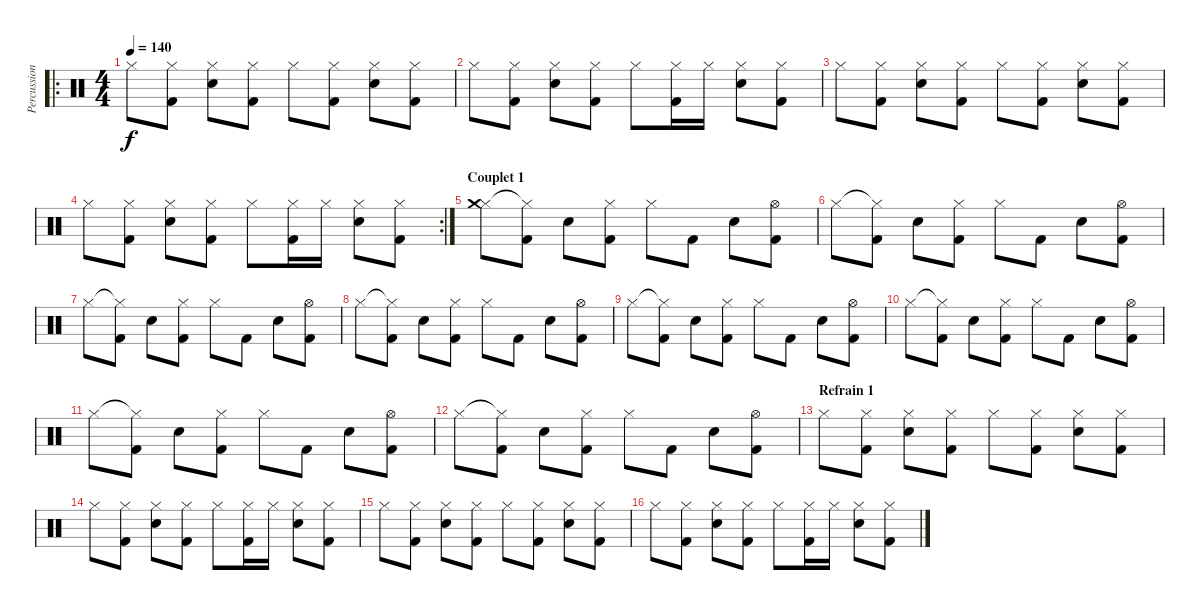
\track ("Percussions" "Percussion") {instrument percussion}
\staff {score}
\articulation defaults
\ro
\ts (4 4)
\tempo 140
\clef neutral
\ks c "Hi-Hat (closed)".8{dy f}
("Hi-Hat (closed)" "Kick (hit) 2").8 ("Hi-Hat (closed)" "Snare (hit) 2").8 ("Hi-Hat (closed)" "Kick (hit) 2").8 "Hi-Hat (closed)".8 ("Hi-Hat (closed)" "Kick (hit) 2").8 ("Hi-Hat (closed)" "Snare (hit) 2").8 ("Hi-Hat (closed)" "Kick (hit) 2").8 |
"Hi-Hat (closed)".8 ("Hi-Hat (closed)" "Kick (hit) 2").8 ("Hi-Hat (closed)" "Snare (hit) 2").8 ("Hi-Hat (closed)" "Kick (hit) 2").8 "Hi-Hat (closed)".8 ("Hi-Hat (closed)" "Kick (hit) 2").16 "Hi-Hat (closed)".16 ("Hi-Hat (closed)" "Snare (hit) 2").8 ("Hi-Hat (closed)" "Kick (hit) 2").8 |
"Hi-Hat (closed)".8 ("Hi-Hat (closed)" "Kick (hit) 2").8 ("Hi-Hat (closed)" "Snare (hit) 2").8 ("Hi-Hat (closed)" "Kick (hit) 2").8 "Hi-Hat (closed)".8 ("Hi-Hat (closed)" "Kick (hit) 2").8 ("Hi-Hat (closed)" "Snare (hit) 2").8 ("Hi-Hat (closed)" "Kick (hit) 2").8 |
\rc 2 "Hi-Hat (closed)".8
("Hi-Hat (closed)" "Kick (hit) 2").8 ("Hi-Hat (closed)" "Snare (hit) 2").8 ("Hi-Hat (closed)" "Kick (hit) 2").8 "Hi-Hat (closed)".8 ("Hi-Hat (closed)" "Kick (hit) 2").16 "Hi-Hat (closed)".16 ("Hi-Hat (closed)" "Snare (hit) 2").8 ("Hi-Hat (closed)" "Kick (hit) 2").8 |
\section ("" "Couplet 1")
("Hi-Hat (closed)" "Crash medium (hit)").8 ("Hi-Hat (closed)"{t} "Kick (hit) 2").8 "Snare (hit) 2".8 ("Hi-Hat (closed)" "Kick (hit) 2").8 "Hi-Hat (closed)".8 "Kick (hit) 2".8 "Snare (hit) 2".8 ("Hi-Hat (open)" "Kick (hit) 2").8 |
"Hi-Hat (closed)".8 ("Hi-Hat (closed)"{t} "Kick (hit) 2").8 "Snare (hit) 2".8 ("Hi-Hat (closed)" "Kick (hit) 2").8 "Hi-Hat (closed)".8 "Kick (hit) 2".8 "Snare (hit) 2".8 ("Hi-Hat (open)" "Kick (hit) 2").8 |
"Hi-Hat (closed)".8 ("Hi-Hat (closed)"{t} "Kick (hit) 2").8 "Snare (hit) 2".8 ("Hi-Hat (closed)" "Kick (hit) 2").8 "Hi-Hat (closed)".8 "Kick (hit) 2".8 "Snare (hit) 2".8 ("Hi-Hat (open)" "Kick (hit) 2").8 |
"Hi-Hat (closed)".8 ("Hi-Hat (closed)"{t} "Kick (hit) 2").8 "Snare (hit) 2".8 ("Hi-Hat (closed)" "Kick (hit) 2").8 "Hi-Hat (closed)".8 "Kick (hit) 2".8 "Snare (hit) 2".8 ("Hi-Hat (open)" "Kick (hit) 2").8 |
"Hi-Hat (closed)".8 ("Hi-Hat (closed)"{t} "Kick (hit) 2").8 "Snare (hit) 2".8 ("Hi-Hat (closed)" "Kick (hit) 2").8 "Hi-Hat (closed)".8 "Kick (hit) 2".8 "Snare (hit) 2".8 ("Hi-Hat (open)" "Kick (hit) 2").8 |
"Hi-Hat (closed)".8 ("Hi-Hat (closed)"{t} "Kick (hit) 2").8 "Snare (hit) 2".8 ("Hi-Hat (closed)" "Kick (hit) 2").8 "Hi-Hat (closed)".8 "Kick (hit) 2".8 "Snare (hit) 2".8 ("Hi-Hat (open)" "Kick (hit) 2").8 |
"Hi-Hat (closed)".8 ("Hi-Hat (closed)"{t} "Kick (hit) 2").8 "Snare (hit) 2".8 ("Hi-Hat (closed)" "Kick (hit) 2").8 "Hi-Hat (closed)".8 "Kick (hit) 2".8 "Snare (hit) 2".8 ("Hi-Hat (open)" "Kick (hit) 2").8 |
"Hi-Hat (closed)".8 ("Hi-Hat (closed)"{t} "Kick (hit) 2").8 "Snare (hit) 2".8 ("Hi-Hat (closed)" "Kick (hit) 2").8 "Hi-Hat (closed)".8 "Kick (hit) 2".8 "Snare (hit) 2".8 ("Hi-Hat (open)" "Kick (hit) 2").8 |
\section ("" "Refrain 1")
"Hi-Hat (closed)".8 ("Hi-Hat (closed)" "Kick (hit) 2").8 ("Hi-Hat (closed)" "Snare (hit) 2").8 ("Hi-Hat (closed)" "Kick (hit) 2").8 "Hi-Hat (closed)".8 ("Hi-Hat (closed)" "Kick (hit) 2").8 ("Hi-Hat (closed)" "Snare (hit) 2").8 ("Hi-Hat (closed)" "Kick (hit) 2").8 |
"Hi-Hat (closed)".8 ("Hi-Hat (closed)" "Kick (hit) 2").8 ("Hi-Hat (closed)" "Snare (hit) 2").8 ("Hi-Hat (closed)" "Kick (hit) 2").8 "Hi-Hat (closed)".8 ("Hi-Hat (closed)" "Kick (hit) 2").16 "Hi-Hat (closed)".16 ("Hi-Hat (closed)" "Snare (hit) 2").8 ("Hi-Hat (closed)" "Kick (hit) 2").8 |
"Hi-Hat (closed)".8 ("Hi-Hat (closed)" "Kick (hit) 2").8 ("Hi-Hat (closed)" "Snare (hit) 2").8 ("Hi-Hat (closed)" "Kick (hit) 2").8 "Hi-Hat (closed)".8 ("Hi-Hat (closed)" "Kick (hit) 2").8 ("Hi-Hat (closed)" "Snare (hit) 2").8 ("Hi-Hat (closed)" "Kick (hit) 2").8 |
"Hi-Hat (closed)".8 ("Hi-Hat (closed)" "Kick (hit) 2").8 ("Hi-Hat (closed)" "Snare (hit) 2").8 ("Hi-Hat (closed)" "Kick (hit) 2").8 "Hi-Hat (closed)".8 ("Hi-Hat (closed)" "Kick (hit) 2").16 "Hi-Hat (closed)".16 ("Hi-Hat (closed)" "Snare (hit) 2").8 ("Hi-Hat (closed)" "Kick (hit) 2").8
